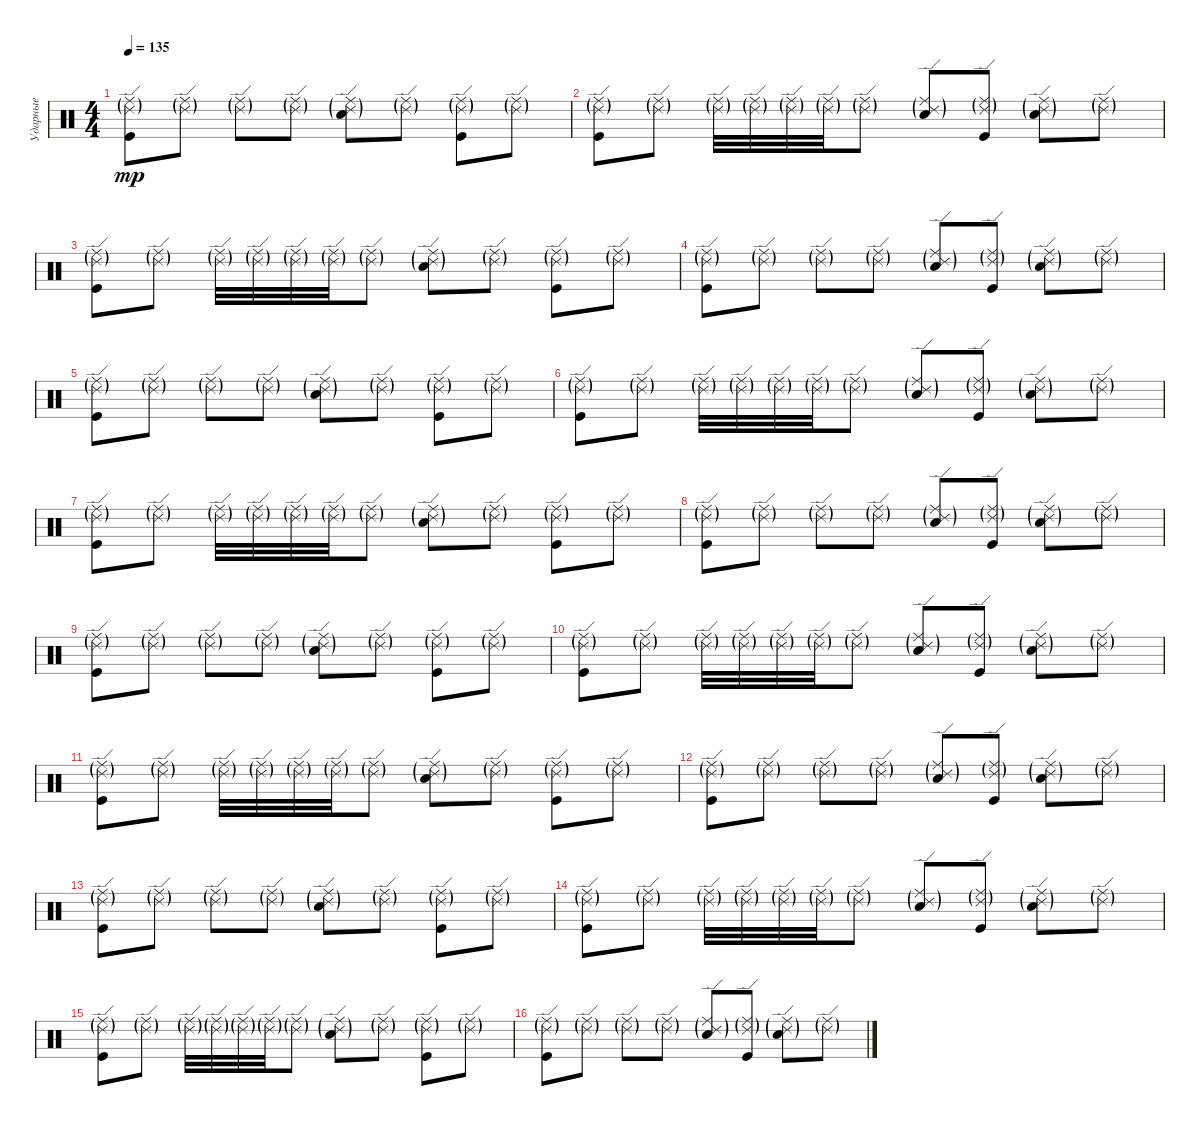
\track ("Ударные" "Ударные") {instrument percussion}
\staff {score}
\articulation defaults
\ts (4 4)
\tempo 135
\clef neutral
\ks c
("Ride (edge) 2"{g} "Ride (middle)"{g} "Kick (hit)").8{dy mp} ("Ride (edge) 2"{g} "Ride (middle)"{g}).8 ("Ride (edge) 2"{g} "Ride (middle)"{g}).8 ("Ride (edge) 2"{g} "Ride (middle)"{g}).8 ("Ride (edge) 2"{g} "Ride (middle)"{g} "Electric Snare (hit)"{g}).8 ("Ride (edge) 2"{g} "Ride (middle)"{g}).8 ("Ride (edge) 2"{g} "Ride (middle)"{g} "Kick (hit)").8 ("Ride (edge) 2"{g} "Ride (middle)"{g}).8 |
("Ride (edge) 2"{g} "Ride (middle)"{g} "Kick (hit)").8 ("Ride (edge) 2"{g} "Ride (middle)"{g}).8 ("Ride (edge) 2"{g} "Ride (middle)"{g}).32 ("Ride (edge) 2"{g} "Ride (middle)"{g}).32 ("Ride (edge) 2"{g} "Ride (middle)"{g}).32 ("Ride (edge) 2"{g} "Ride (middle)"{g}).32 ("Ride (edge) 2"{g} "Ride (middle)"{g}).8 ("Ride (edge) 2"{g} "Ride (middle)"{g} "Electric Snare (hit)"{g}).8 ("Ride (edge) 2"{g} "Ride (middle)"{g} "Kick (hit)").8 ("Ride (edge) 2"{g} "Ride (middle)"{g} "Electric Snare (hit)"{g}).8 ("Ride (edge) 2"{g} "Ride (middle)"{g}).8 |
("Ride (edge) 2"{g} "Ride (middle)"{g} "Kick (hit)").8 ("Ride (edge) 2"{g} "Ride (middle)"{g}).8 ("Ride (edge) 2"{g} "Ride (middle)"{g}).32 ("Ride (edge) 2"{g} "Ride (middle)"{g}).32 ("Ride (edge) 2"{g} "Ride (middle)"{g}).32 ("Ride (edge) 2"{g} "Ride (middle)"{g}).32 ("Ride (edge) 2"{g} "Ride (middle)"{g}).8 ("Ride (edge) 2"{g} "Ride (middle)"{g} "Electric Snare (hit)"{g}).8 ("Ride (edge) 2"{g} "Ride (middle)"{g}).8 ("Ride (edge) 2"{g} "Ride (middle)"{g} "Kick (hit)").8 ("Ride (edge) 2"{g} "Ride (middle)"{g}).8 |
("Ride (edge) 2"{g} "Ride (middle)"{g} "Kick (hit)").8 ("Ride (edge) 2"{g} "Ride (middle)"{g}).8 ("Ride (edge) 2"{g} "Ride (middle)"{g}).8 ("Ride (edge) 2"{g} "Ride (middle)"{g}).8 ("Ride (edge) 2"{g} "Ride (middle)"{g} "Electric Snare (hit)"{g}).8 ("Ride (edge) 2"{g} "Ride (middle)"{g} "Kick (hit)").8 ("Ride (edge) 2"{g} "Ride (middle)"{g} "Electric Snare (hit)"{g}).8 ("Ride (edge) 2"{g} "Ride (middle)"{g}).8 |
("Ride (edge) 2"{g} "Ride (middle)"{g} "Kick (hit)").8 ("Ride (edge) 2"{g} "Ride (middle)"{g}).8 ("Ride (edge) 2"{g} "Ride (middle)"{g}).8 ("Ride (edge) 2"{g} "Ride (middle)"{g}).8 ("Ride (edge) 2"{g} "Ride (middle)"{g} "Electric Snare (hit)"{g}).8 ("Ride (edge) 2"{g} "Ride (middle)"{g}).8 ("Ride (edge) 2"{g} "Ride (middle)"{g} "Kick (hit)").8 ("Ride (edge) 2"{g} "Ride (middle)"{g}).8 |
("Ride (edge) 2"{g} "Ride (middle)"{g} "Kick (hit)").8 ("Ride (edge) 2"{g} "Ride (middle)"{g}).8 ("Ride (edge) 2"{g} "Ride (middle)"{g}).32 ("Ride (edge) 2"{g} "Ride (middle)"{g}).32 ("Ride (edge) 2"{g} "Ride (middle)"{g}).32 ("Ride (edge) 2"{g} "Ride (middle)"{g}).32 ("Ride (edge) 2"{g} "Ride (middle)"{g}).8 ("Ride (edge) 2"{g} "Ride (middle)"{g} "Electric Snare (hit)"{g}).8 ("Ride (edge) 2"{g} "Ride (middle)"{g} "Kick (hit)").8 ("Ride (edge) 2"{g} "Ride (middle)"{g} "Electric Snare (hit)"{g}).8 ("Ride (edge) 2"{g} "Ride (middle)"{g}).8 |
("Ride (edge) 2"{g} "Ride (middle)"{g} "Kick (hit)").8 ("Ride (edge) 2"{g} "Ride (middle)"{g}).8 ("Ride (edge) 2"{g} "Ride (middle)"{g}).32 ("Ride (edge) 2"{g} "Ride (middle)"{g}).32 ("Ride (edge) 2"{g} "Ride (middle)"{g}).32 ("Ride (edge) 2"{g} "Ride (middle)"{g}).32 ("Ride (edge) 2"{g} "Ride (middle)"{g}).8 ("Ride (edge) 2"{g} "Ride (middle)"{g} "Electric Snare (hit)"{g}).8 ("Ride (edge) 2"{g} "Ride (middle)"{g}).8 ("Ride (edge) 2"{g} "Ride (middle)"{g} "Kick (hit)").8 ("Ride (edge) 2"{g} "Ride (middle)"{g}).8 |
("Ride (edge) 2"{g} "Ride (middle)"{g} "Kick (hit)").8 ("Ride (edge) 2"{g} "Ride (middle)"{g}).8 ("Ride (edge) 2"{g} "Ride (middle)"{g}).8 ("Ride (edge) 2"{g} "Ride (middle)"{g}).8 ("Ride (edge) 2"{g} "Ride (middle)"{g} "Electric Snare (hit)"{g}).8 ("Ride (edge) 2"{g} "Ride (middle)"{g} "Kick (hit)").8 ("Ride (edge) 2"{g} "Ride (middle)"{g} "Electric Snare (hit)"{g}).8 ("Ride (edge) 2"{g} "Ride (middle)"{g}).8 |
("Ride (edge) 2"{g} "Ride (middle)"{g} "Kick (hit)").8 ("Ride (edge) 2"{g} "Ride (middle)"{g}).8 ("Ride (edge) 2"{g} "Ride (middle)"{g}).8 ("Ride (edge) 2"{g} "Ride (middle)"{g}).8 ("Ride (edge) 2"{g} "Ride (middle)"{g} "Electric Snare (hit)"{g}).8 ("Ride (edge) 2"{g} "Ride (middle)"{g}).8 ("Ride (edge) 2"{g} "Ride (middle)"{g} "Kick (hit)").8 ("Ride (edge) 2"{g} "Ride (middle)"{g}).8 |
("Ride (edge) 2"{g} "Ride (middle)"{g} "Kick (hit)").8 ("Ride (edge) 2"{g} "Ride (middle)"{g}).8 ("Ride (edge) 2"{g} "Ride (middle)"{g}).32 ("Ride (edge) 2"{g} "Ride (middle)"{g}).32 ("Ride (edge) 2"{g} "Ride (middle)"{g}).32 ("Ride (edge) 2"{g} "Ride (middle)"{g}).32 ("Ride (edge) 2"{g} "Ride (middle)"{g}).8 ("Ride (edge) 2"{g} "Ride (middle)"{g} "Electric Snare (hit)"{g}).8 ("Ride (edge) 2"{g} "Ride (middle)"{g} "Kick (hit)").8 ("Ride (edge) 2"{g} "Ride (middle)"{g} "Electric Snare (hit)"{g}).8 ("Ride (edge) 2"{g} "Ride (middle)"{g}).8 |
("Ride (edge) 2"{g} "Ride (middle)"{g} "Kick (hit)").8 ("Ride (edge) 2"{g} "Ride (middle)"{g}).8 ("Ride (edge) 2"{g} "Ride (middle)"{g}).32 ("Ride (edge) 2"{g} "Ride (middle)"{g}).32 ("Ride (edge) 2"{g} "Ride (middle)"{g}).32 ("Ride (edge) 2"{g} "Ride (middle)"{g}).32 ("Ride (edge) 2"{g} "Ride (middle)"{g}).8 ("Ride (edge) 2"{g} "Ride (middle)"{g} "Electric Snare (hit)"{g}).8 ("Ride (edge) 2"{g} "Ride (middle)"{g}).8 ("Ride (edge) 2"{g} "Ride (middle)"{g} "Kick (hit)").8 ("Ride (edge) 2"{g} "Ride (middle)"{g}).8 |
("Ride (edge) 2"{g} "Ride (middle)"{g} "Kick (hit)").8 ("Ride (edge) 2"{g} "Ride (middle)"{g}).8 ("Ride (edge) 2"{g} "Ride (middle)"{g}).8 ("Ride (edge) 2"{g} "Ride (middle)"{g}).8 ("Ride (edge) 2"{g} "Ride (middle)"{g} "Electric Snare (hit)"{g}).8 ("Ride (edge) 2"{g} "Ride (middle)"{g} "Kick (hit)").8 ("Ride (edge) 2"{g} "Ride (middle)"{g} "Electric Snare (hit)"{g}).8 ("Ride (edge) 2"{g} "Ride (middle)"{g}).8 |
("Ride (edge) 2"{g} "Ride (middle)"{g} "Kick (hit)").8 ("Ride (edge) 2"{g} "Ride (middle)"{g}).8 ("Ride (edge) 2"{g} "Ride (middle)"{g}).8 ("Ride (edge) 2"{g} "Ride (middle)"{g}).8 ("Ride (edge) 2"{g} "Ride (middle)"{g} "Electric Snare (hit)"{g}).8 ("Ride (edge) 2"{g} "Ride (middle)"{g}).8 ("Ride (edge) 2"{g} "Ride (middle)"{g} "Kick (hit)").8 ("Ride (edge) 2"{g} "Ride (middle)"{g}).8 |
("Ride (edge) 2"{g} "Ride (middle)"{g} "Kick (hit)").8 ("Ride (edge) 2"{g} "Ride (middle)"{g}).8 ("Ride (edge) 2"{g} "Ride (middle)"{g}).32 ("Ride (edge) 2"{g} "Ride (middle)"{g}).32 ("Ride (edge) 2"{g} "Ride (middle)"{g}).32 ("Ride (edge) 2"{g} "Ride (middle)"{g}).32 ("Ride (edge) 2"{g} "Ride (middle)"{g}).8 ("Ride (edge) 2"{g} "Ride (middle)"{g} "Electric Snare (hit)"{g}).8 ("Ride (edge) 2"{g} "Ride (middle)"{g} "Kick (hit)").8 ("Ride (edge) 2"{g} "Ride (middle)"{g} "Electric Snare (hit)"{g}).8 ("Ride (edge) 2"{g} "Ride (middle)"{g}).8 |
("Ride (edge) 2"{g} "Ride (middle)"{g} "Kick (hit)").8 ("Ride (edge) 2"{g} "Ride (middle)"{g}).8 ("Ride (edge) 2"{g} "Ride (middle)"{g}).32 ("Ride (edge) 2"{g} "Ride (middle)"{g}).32 ("Ride (edge) 2"{g} "Ride (middle)"{g}).32 ("Ride (edge) 2"{g} "Ride (middle)"{g}).32 ("Ride (edge) 2"{g} "Ride (middle)"{g}).8 ("Ride (edge) 2"{g} "Ride (middle)"{g} "Electric Snare (hit)"{g}).8 ("Ride (edge) 2"{g} "Ride (middle)"{g}).8 ("Ride (edge) 2"{g} "Ride (middle)"{g} "Kick (hit)").8 ("Ride (edge) 2"{g} "Ride (middle)"{g}).8 |
("Ride (edge) 2"{g} "Ride (middle)"{g} "Kick (hit)").8 ("Ride (edge) 2"{g} "Ride (middle)"{g}).8 ("Ride (edge) 2"{g} "Ride (middle)"{g}).8 ("Ride (edge) 2"{g} "Ride (middle)"{g}).8 ("Ride (edge) 2"{g} "Ride (middle)"{g} "Electric Snare (hit)"{g}).8 ("Ride (edge) 2"{g} "Ride (middle)"{g} "Kick (hit)").8 ("Ride (edge) 2"{g} "Ride (middle)"{g} "Electric Snare (hit)"{g}).8 ("Ride (edge) 2"{g} "Ride (middle)"{g}).8
